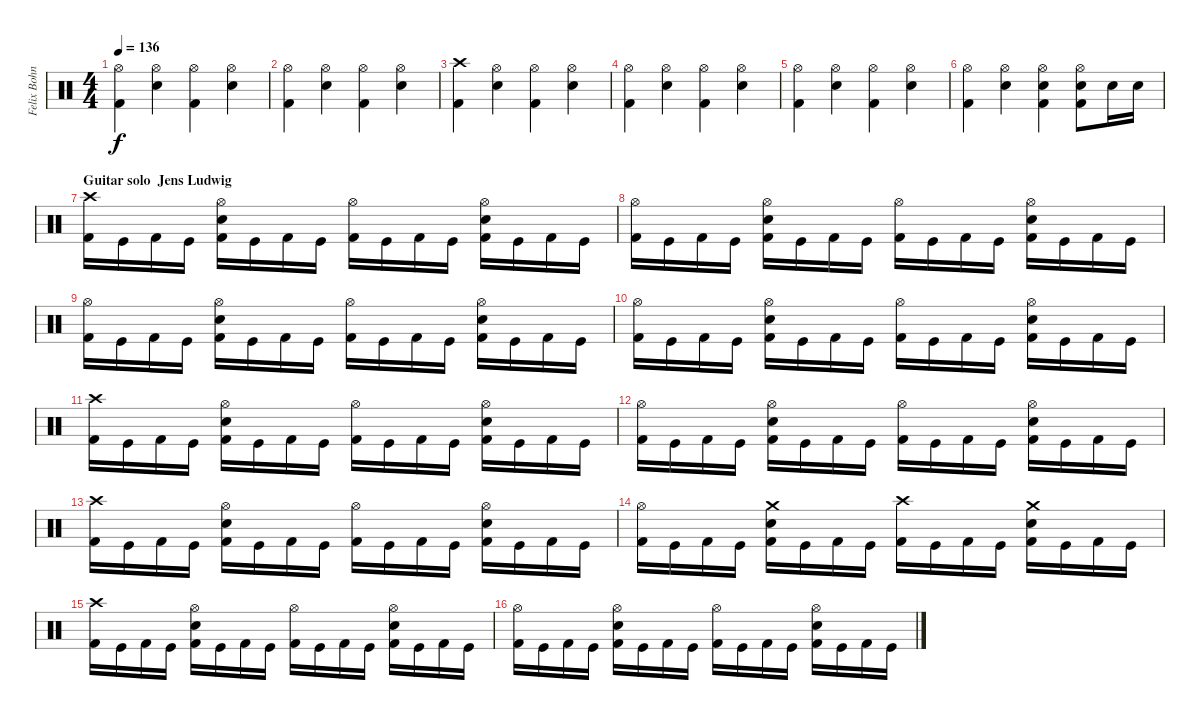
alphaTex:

\track ("Felix Bohnke" "Felix Bohn") {instrument percussion}
\staff {score}
\articulation defaults
\ts (4 4)
\tempo 136
\clef neutral
\ks c
("Hi-Hat (open)" "Kick (hit) 2").4{dy f} ("Hi-Hat (open)" "Snare (hit) 2").4 ("Hi-Hat (open)" "Kick (hit) 2").4 ("Hi-Hat (open)" "Snare (hit) 2").4 |
("Hi-Hat (open)" "Kick (hit) 2").4 ("Hi-Hat (open)" "Snare (hit) 2").4 ("Hi-Hat (open)" "Kick (hit) 2").4 ("Hi-Hat (open)" "Snare (hit) 2").4 |
("Crash high (hit)" "Kick (hit) 2").4 ("Hi-Hat (open)" "Snare (hit) 2").4 ("Hi-Hat (open)" "Kick (hit) 2").4 ("Hi-Hat (open)" "Snare (hit) 2").4 |
("Hi-Hat (open)" "Kick (hit) 2").4 ("Hi-Hat (open)" "Snare (hit) 2").4 ("Hi-Hat (open)" "Kick (hit) 2").4 ("Hi-Hat (open)" "Snare (hit) 2").4 |
("Hi-Hat (open)" "Kick (hit) 2").4 ("Hi-Hat (open)" "Snare (hit) 2").4 ("Hi-Hat (open)" "Kick (hit) 2").4 ("Hi-Hat (open)" "Snare (hit) 2").4 |
("Hi-Hat (open)" "Kick (hit) 2").4 ("Hi-Hat (open)" "Snare (hit) 2").4 ("Hi-Hat (open)" "Snare (hit) 2" "Kick (hit) 2").4 ("Hi-Hat (open)" "Snare (hit) 2" "Kick (hit) 2").8 "Snare (hit) 2".16 "Snare (hit) 2".16 |
\section ("" "Guitar solo  Jens Ludwig")
("Crash high (hit)" "Kick (hit) 2").16 "Kick (hit)".16 "Kick (hit) 2".16 "Kick (hit)".16 ("Hi-Hat (open)" "Snare (hit) 2" "Kick (hit) 2").16 "Kick (hit)".16 "Kick (hit) 2".16 "Kick (hit)".16 ("Hi-Hat (open)" "Kick (hit) 2").16 "Kick (hit)".16 "Kick (hit) 2".16 "Kick (hit)".16 ("Hi-Hat (open)" "Snare (hit) 2" "Kick (hit) 2").16 "Kick (hit)".16 "Kick (hit) 2".16 "Kick (hit)".16 |
("Hi-Hat (open)" "Kick (hit) 2").16 "Kick (hit)".16 "Kick (hit) 2".16 "Kick (hit)".16 ("Hi-Hat (open)" "Snare (hit) 2" "Kick (hit) 2").16 "Kick (hit)".16 "Kick (hit) 2".16 "Kick (hit)".16 ("Hi-Hat (open)" "Kick (hit) 2").16 "Kick (hit)".16 "Kick (hit) 2".16 "Kick (hit)".16 ("Hi-Hat (open)" "Snare (hit) 2" "Kick (hit) 2").16 "Kick (hit)".16 "Kick (hit) 2".16 "Kick (hit)".16 |
("Hi-Hat (open)" "Kick (hit) 2").16 "Kick (hit)".16 "Kick (hit) 2".16 "Kick (hit)".16 ("Hi-Hat (open)" "Snare (hit) 2" "Kick (hit) 2").16 "Kick (hit)".16 "Kick (hit) 2".16 "Kick (hit)".16 ("Hi-Hat (open)" "Kick (hit) 2").16 "Kick (hit)".16 "Kick (hit) 2".16 "Kick (hit)".16 ("Hi-Hat (open)" "Snare (hit) 2" "Kick (hit) 2").16 "Kick (hit)".16 "Kick (hit) 2".16 "Kick (hit)".16 |
("Hi-Hat (open)" "Kick (hit) 2").16 "Kick (hit)".16 "Kick (hit) 2".16 "Kick (hit)".16 ("Hi-Hat (open)" "Snare (hit) 2" "Kick (hit) 2").16 "Kick (hit)".16 "Kick (hit) 2".16 "Kick (hit)".16 ("Hi-Hat (open)" "Kick (hit) 2").16 "Kick (hit)".16 "Kick (hit) 2".16 "Kick (hit)".16 ("Hi-Hat (open)" "Snare (hit) 2" "Kick (hit) 2").16 "Kick (hit)".16 "Kick (hit) 2".16 "Kick (hit)".16 |
("Crash high (hit)" "Kick (hit) 2").16 "Kick (hit)".16 "Kick (hit) 2".16 "Kick (hit)".16 ("Hi-Hat (open)" "Snare (hit) 2" "Kick (hit) 2").16 "Kick (hit)".16 "Kick (hit) 2".16 "Kick (hit)".16 ("Hi-Hat (open)" "Kick (hit) 2").16 "Kick (hit)".16 "Kick (hit) 2".16 "Kick (hit)".16 ("Hi-Hat (open)" "Snare (hit) 2" "Kick (hit) 2").16 "Kick (hit)".16 "Kick (hit) 2".16 "Kick (hit)".16 |
("Hi-Hat (open)" "Kick (hit) 2").16 "Kick (hit)".16 "Kick (hit) 2".16 "Kick (hit)".16 ("Hi-Hat (open)" "Snare (hit) 2" "Kick (hit) 2").16 "Kick (hit)".16 "Kick (hit) 2".16 "Kick (hit)".16 ("Hi-Hat (open)" "Kick (hit) 2").16 "Kick (hit)".16 "Kick (hit) 2".16 "Kick (hit)".16 ("Hi-Hat (open)" "Snare (hit) 2" "Kick (hit) 2").16 "Kick (hit)".16 "Kick (hit) 2".16 "Kick (hit)".16 |
("Crash high (hit)" "Kick (hit) 2").16 "Kick (hit)".16 "Kick (hit) 2".16 "Kick (hit)".16 ("Hi-Hat (open)" "Snare (hit) 2" "Kick (hit) 2").16 "Kick (hit)".16 "Kick (hit) 2".16 "Kick (hit)".16 ("Hi-Hat (open)" "Kick (hit) 2").16 "Kick (hit)".16 "Kick (hit) 2".16 "Kick (hit)".16 ("Hi-Hat (open)" "Snare (hit) 2" "Kick (hit) 2").16 "Kick (hit)".16 "Kick (hit) 2".16 "Kick (hit)".16 |
("Hi-Hat (open)" "Kick (hit) 2").16 "Kick (hit)".16 "Kick (hit) 2".16 "Kick (hit)".16 ("Crash medium (hit)" "Snare (hit) 2" "Kick (hit) 2").16 "Kick (hit)".16 "Kick (hit) 2".16 "Kick (hit)".16 ("Crash high (hit)" "Kick (hit) 2").16 "Kick (hit)".16 "Kick (hit) 2".16 "Kick (hit)".16 ("Crash medium (hit)" "Snare (hit) 2" "Kick (hit) 2").16 "Kick (hit)".16 "Kick (hit) 2".16 "Kick (hit)".16 |
("Crash high (hit)" "Kick (hit) 2").16 "Kick (hit)".16 "Kick (hit) 2".16 "Kick (hit)".16 ("Hi-Hat (open)" "Snare (hit) 2" "Kick (hit) 2").16 "Kick (hit)".16 "Kick (hit) 2".16 "Kick (hit)".16 ("Hi-Hat (open)" "Kick (hit) 2").16 "Kick (hit)".16 "Kick (hit) 2".16 "Kick (hit)".16 ("Hi-Hat (open)" "Snare (hit) 2" "Kick (hit) 2").16 "Kick (hit)".16 "Kick (hit) 2".16 "Kick (hit)".16 |
("Hi-Hat (open)" "Kick (hit) 2").16 "Kick (hit)".16 "Kick (hit) 2".16 "Kick (hit)".16 ("Hi-Hat (open)" "Snare (hit) 2" "Kick (hit) 2").16 "Kick (hit)".16 "Kick (hit) 2".16 "Kick (hit)".16 ("Hi-Hat (open)" "Kick (hit) 2").16 "Kick (hit)".16 "Kick (hit) 2".16 "Kick (hit)".16 ("Hi-Hat (open)" "Snare (hit) 2" "Kick (hit) 2").16 "Kick (hit)".16 "Kick (hit) 2".16 "Kick (hit)".16
